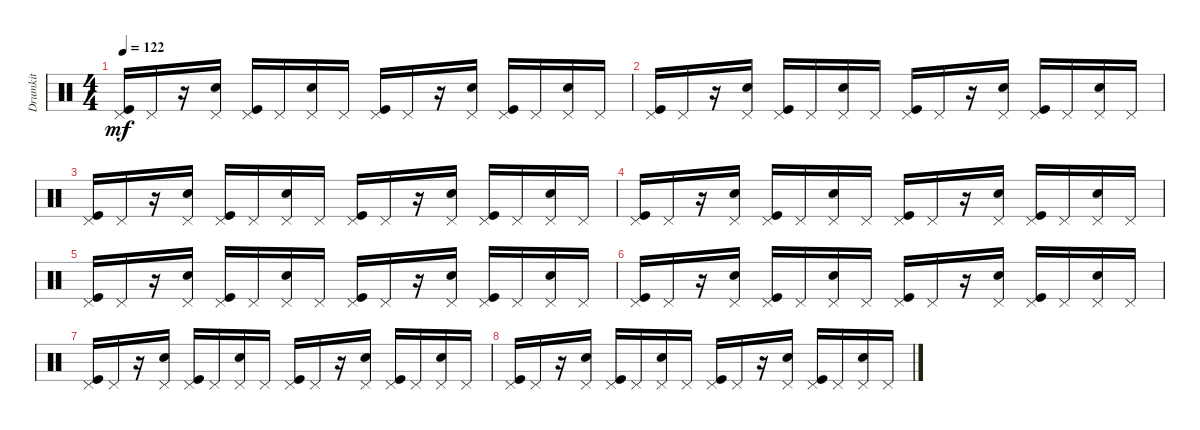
\track ("Drumkit" "Drumkit") {instrument percussion}
\staff {score}
\articulation defaults
\ts (4 4)
\tempo 122
\clef neutral
\ks c
("Kick (hit)" "Pedal Hi-Hat (hit)").16{dy mf} "Pedal Hi-Hat (hit)".16 r.16 ("Snare (hit) 2" "Pedal Hi-Hat (hit)").16 ("Kick (hit)" "Pedal Hi-Hat (hit)").16 "Pedal Hi-Hat (hit)".16 ("Snare (hit) 2" "Pedal Hi-Hat (hit)").16 "Pedal Hi-Hat (hit)".16 ("Kick (hit)" "Pedal Hi-Hat (hit)").16 "Pedal Hi-Hat (hit)".16 r.16 ("Snare (hit) 2" "Pedal Hi-Hat (hit)").16 ("Kick (hit)" "Pedal Hi-Hat (hit)").16 "Pedal Hi-Hat (hit)".16 ("Snare (hit) 2" "Pedal Hi-Hat (hit)").16 "Pedal Hi-Hat (hit)".16 |
("Kick (hit)" "Pedal Hi-Hat (hit)").16 "Pedal Hi-Hat (hit)".16 r.16 ("Snare (hit) 2" "Pedal Hi-Hat (hit)").16 ("Kick (hit)" "Pedal Hi-Hat (hit)").16 "Pedal Hi-Hat (hit)".16 ("Snare (hit) 2" "Pedal Hi-Hat (hit)").16 "Pedal Hi-Hat (hit)".16 ("Kick (hit)" "Pedal Hi-Hat (hit)").16 "Pedal Hi-Hat (hit)".16 r.16 ("Snare (hit) 2" "Pedal Hi-Hat (hit)").16 ("Kick (hit)" "Pedal Hi-Hat (hit)").16 "Pedal Hi-Hat (hit)".16 ("Snare (hit) 2" "Pedal Hi-Hat (hit)").16 "Pedal Hi-Hat (hit)".16 |
("Kick (hit)" "Pedal Hi-Hat (hit)").16 "Pedal Hi-Hat (hit)".16 r.16 ("Snare (hit) 2" "Pedal Hi-Hat (hit)").16 ("Kick (hit)" "Pedal Hi-Hat (hit)").16 "Pedal Hi-Hat (hit)".16 ("Snare (hit) 2" "Pedal Hi-Hat (hit)").16 "Pedal Hi-Hat (hit)".16 ("Kick (hit)" "Pedal Hi-Hat (hit)").16 "Pedal Hi-Hat (hit)".16 r.16 ("Snare (hit) 2" "Pedal Hi-Hat (hit)").16 ("Kick (hit)" "Pedal Hi-Hat (hit)").16 "Pedal Hi-Hat (hit)".16 ("Snare (hit) 2" "Pedal Hi-Hat (hit)").16 "Pedal Hi-Hat (hit)".16 |
("Kick (hit)" "Pedal Hi-Hat (hit)").16 "Pedal Hi-Hat (hit)".16 r.16 ("Snare (hit) 2" "Pedal Hi-Hat (hit)").16 ("Kick (hit)" "Pedal Hi-Hat (hit)").16 "Pedal Hi-Hat (hit)".16 ("Snare (hit) 2" "Pedal Hi-Hat (hit)").16 "Pedal Hi-Hat (hit)".16 ("Kick (hit)" "Pedal Hi-Hat (hit)").16 "Pedal Hi-Hat (hit)".16 r.16 ("Snare (hit) 2" "Pedal Hi-Hat (hit)").16 ("Kick (hit)" "Pedal Hi-Hat (hit)").16 "Pedal Hi-Hat (hit)".16 ("Snare (hit) 2" "Pedal Hi-Hat (hit)").16 "Pedal Hi-Hat (hit)".16 |
("Kick (hit)" "Pedal Hi-Hat (hit)").16 "Pedal Hi-Hat (hit)".16 r.16 ("Snare (hit) 2" "Pedal Hi-Hat (hit)").16 ("Kick (hit)" "Pedal Hi-Hat (hit)").16 "Pedal Hi-Hat (hit)".16 ("Snare (hit) 2" "Pedal Hi-Hat (hit)").16 "Pedal Hi-Hat (hit)".16 ("Kick (hit)" "Pedal Hi-Hat (hit)").16 "Pedal Hi-Hat (hit)".16 r.16 ("Snare (hit) 2" "Pedal Hi-Hat (hit)").16 ("Kick (hit)" "Pedal Hi-Hat (hit)").16 "Pedal Hi-Hat (hit)".16 ("Snare (hit) 2" "Pedal Hi-Hat (hit)").16 "Pedal Hi-Hat (hit)".16 |
("Kick (hit)" "Pedal Hi-Hat (hit)").16 "Pedal Hi-Hat (hit)".16 r.16 ("Snare (hit) 2" "Pedal Hi-Hat (hit)").16 ("Kick (hit)" "Pedal Hi-Hat (hit)").16 "Pedal Hi-Hat (hit)".16 ("Snare (hit) 2" "Pedal Hi-Hat (hit)").16 "Pedal Hi-Hat (hit)".16 ("Kick (hit)" "Pedal Hi-Hat (hit)").16 "Pedal Hi-Hat (hit)".16 r.16 ("Snare (hit) 2" "Pedal Hi-Hat (hit)").16 ("Kick (hit)" "Pedal Hi-Hat (hit)").16 "Pedal Hi-Hat (hit)".16 ("Snare (hit) 2" "Pedal Hi-Hat (hit)").16 "Pedal Hi-Hat (hit)".16 |
("Kick (hit)" "Pedal Hi-Hat (hit)").16 "Pedal Hi-Hat (hit)".16 r.16 ("Snare (hit) 2" "Pedal Hi-Hat (hit)").16 ("Kick (hit)" "Pedal Hi-Hat (hit)").16 "Pedal Hi-Hat (hit)".16 ("Snare (hit) 2" "Pedal Hi-Hat (hit)").16 "Pedal Hi-Hat (hit)".16 ("Kick (hit)" "Pedal Hi-Hat (hit)").16 "Pedal Hi-Hat (hit)".16 r.16 ("Snare (hit) 2" "Pedal Hi-Hat (hit)").16 ("Kick (hit)" "Pedal Hi-Hat (hit)").16 "Pedal Hi-Hat (hit)".16 ("Snare (hit) 2" "Pedal Hi-Hat (hit)").16 "Pedal Hi-Hat (hit)".16 |
("Kick (hit)" "Pedal Hi-Hat (hit)").16 "Pedal Hi-Hat (hit)".16 r.16 ("Snare (hit) 2" "Pedal Hi-Hat (hit)").16 ("Kick (hit)" "Pedal Hi-Hat (hit)").16 "Pedal Hi-Hat (hit)".16 ("Snare (hit) 2" "Pedal Hi-Hat (hit)").16 "Pedal Hi-Hat (hit)".16 ("Kick (hit)" "Pedal Hi-Hat (hit)").16 "Pedal Hi-Hat (hit)".16 r.16 ("Snare (hit) 2" "Pedal Hi-Hat (hit)").16 ("Kick (hit)" "Pedal Hi-Hat (hit)").16 "Pedal Hi-Hat (hit)".16 ("Snare (hit) 2" "Pedal Hi-Hat (hit)").16 "Pedal Hi-Hat (hit)".16
